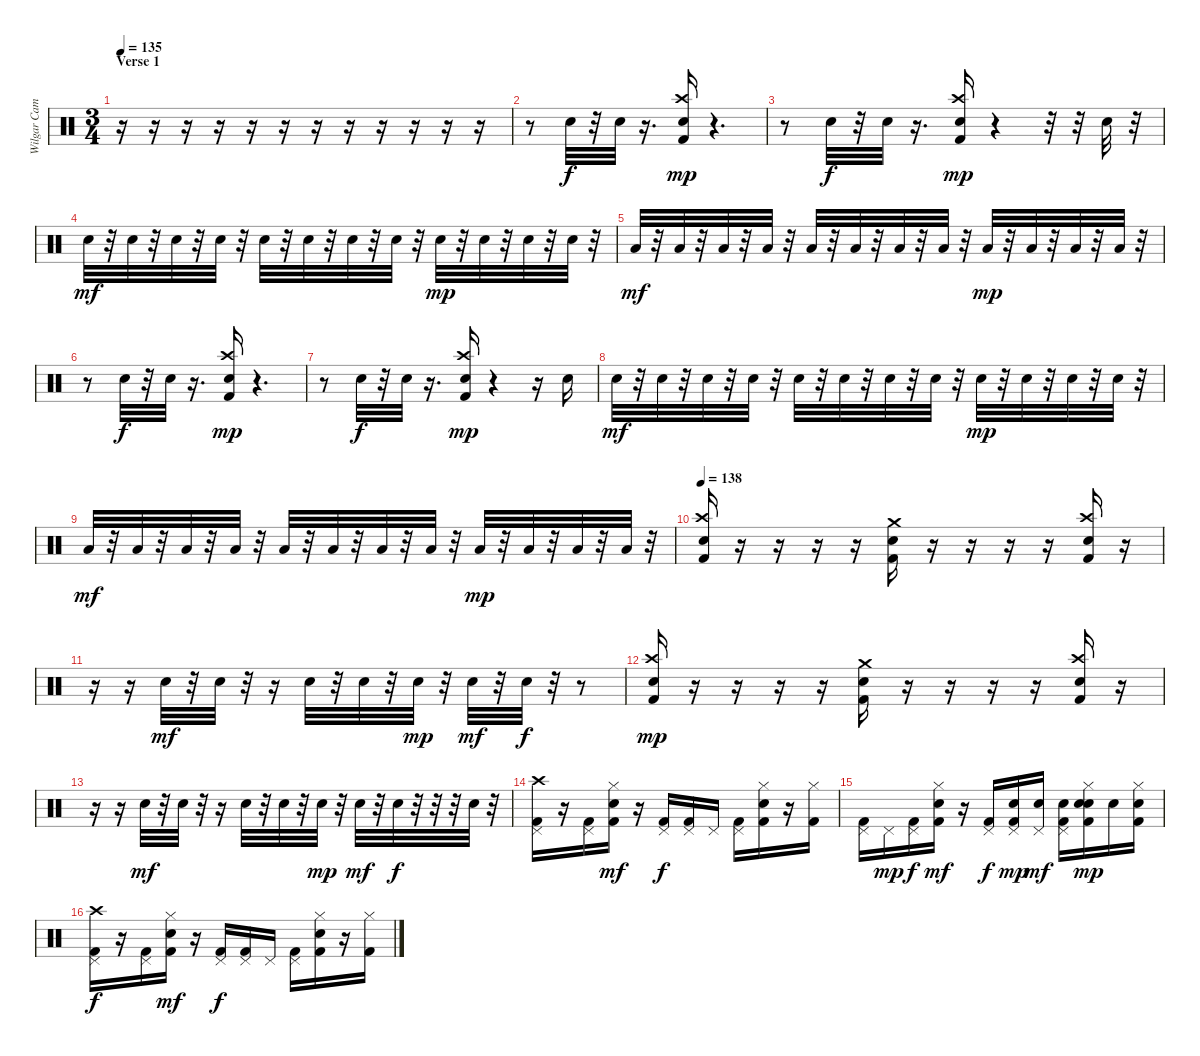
\track ("Wilgar Campbell" "Wilgar Cam") {instrument percussion}
\staff {score}
\articulation defaults
\ts (3 4)
\section ("" "Verse 1")
\tempo 135
\clef neutral
\ks c
r.16{dy f} r.16 r.16 r.16 r.16 r.16 r.16 r.16 r.16 r.16 r.16 r.16 |
r.8 "Snare (hit) 2".32 r.32 "Snare (hit) 2".32 r.16{d} ("Crash high (hit)" "Snare (hit) 2" "Kick (hit) 2").16{dy mp} r.4{d} |
r.8 "Snare (hit) 2".32{dy f} r.32 "Snare (hit) 2".32 r.16{d} ("Crash high (hit)" "Snare (hit) 2" "Kick (hit) 2").16{dy mp} r.4 r.32 r.32 "Snare (hit) 2".32 r.32 |
"Snare (hit) 2".32{dy mf} r.32 "Snare (hit) 2".32 r.32 "Snare (hit) 2".32 r.32 "Snare (hit) 2".32 r.32 "Snare (hit) 2".32 r.32 "Snare (hit) 2".32 r.32 "Snare (hit) 2".32 r.32 "Snare (hit) 2".32 r.32 "Snare (hit) 2".32{dy mp} r.32 "Snare (hit) 2".32 r.32 "Snare (hit) 2".32 r.32 "Snare (hit) 2".32 r.32 |
"Low Tom (hit)".32{dy mf} r.32 "Low Tom (hit)".32 r.32 "Low Tom (hit)".32 r.32 "Low Tom (hit)".32 r.32 "Low Tom (hit)".32 r.32 "Low Tom (hit)".32 r.32 "Low Tom (hit)".32 r.32 "Low Tom (hit)".32 r.32 "Low Tom (hit)".32{dy mp} r.32 "Low Tom (hit)".32 r.32 "Low Tom (hit)".32 r.32 "Low Tom (hit)".32 r.32 |
r.8 "Snare (hit) 2".32{dy f} r.32 "Snare (hit) 2".32 r.16{d} ("Crash high (hit)" "Snare (hit) 2" "Kick (hit) 2").16{dy mp} r.4{d} |
r.8 "Snare (hit) 2".32{dy f} r.32 "Snare (hit) 2".32 r.16{d} ("Crash high (hit)" "Snare (hit) 2" "Kick (hit) 2").16{dy mp} r.4 r.16 "Snare (hit) 2".16 |
"Snare (hit) 2".32{dy mf} r.32 "Snare (hit) 2".32 r.32 "Snare (hit) 2".32 r.32 "Snare (hit) 2".32 r.32 "Snare (hit) 2".32 r.32 "Snare (hit) 2".32 r.32 "Snare (hit) 2".32 r.32 "Snare (hit) 2".32 r.32 "Snare (hit) 2".32{dy mp} r.32 "Snare (hit) 2".32 r.32 "Snare (hit) 2".32 r.32 "Snare (hit) 2".32 r.32 |
"Low Tom (hit)".32{dy mf} r.32 "Low Tom (hit)".32 r.32 "Low Tom (hit)".32 r.32 "Low Tom (hit)".32 r.32 "Low Tom (hit)".32 r.32 "Low Tom (hit)".32 r.32 "Low Tom (hit)".32 r.32 "Low Tom (hit)".32 r.32 "Low Tom (hit)".32{dy mp} r.32 "Low Tom (hit)".32 r.32 "Low Tom (hit)".32 r.32 "Low Tom (hit)".32 r.32 |
\tempo 138
("Crash high (hit)" "Snare (hit) 2" "Kick (hit) 2").16 r.16 r.16 r.16 r.16 ("Crash medium (hit)" "Snare (hit) 2" "Kick (hit) 2").16 r.16 r.16 r.16 r.16 ("Crash high (hit)" "Snare (hit) 2" "Kick (hit) 2").16 r.16 |
r.16 r.16 "Snare (hit) 2".32{dy mf} r.32 "Snare (hit) 2".32 r.32 r.16 "Snare (hit) 2".32 r.32 "Snare (hit) 2".32 r.32 "Snare (hit) 2".32{dy mp} r.32 "Snare (hit) 2".32{dy mf} r.32 "Snare (hit) 2".32{dy f} r.32 r.8 |
("Crash high (hit)" "Snare (hit) 2" "Kick (hit) 2").16{dy mp} r.16 r.16 r.16 r.16 ("Crash medium (hit)" "Snare (hit) 2" "Kick (hit) 2").16 r.16 r.16 r.16 r.16 ("Crash high (hit)" "Snare (hit) 2" "Kick (hit) 2").16 r.16 |
r.16 r.16 "Snare (hit) 2".32{dy mf} r.32 "Snare (hit) 2".32 r.32 r.16 "Snare (hit) 2".32 r.32 "Snare (hit) 2".32 r.32 "Snare (hit) 2".32{dy mp} r.32 "Snare (hit) 2".32{dy mf} r.32 "Snare (hit) 2".32{dy f} r.32 r.32 r.32 "Snare (hit) 2".32 r.32 |
("Crash high (hit)" "Pedal Hi-Hat (hit)" "Kick (hit) 2").16 r.16 ("Pedal Hi-Hat (hit)" "Kick (hit) 2").16 ("Snare (hit) 2" "Hi-Hat (closed)" "Kick (hit) 2").16{dy mf} r.16 ("Pedal Hi-Hat (hit)" "Kick (hit) 2").16{dy f} ("Pedal Hi-Hat (hit)" "Kick (hit) 2").16 "Pedal Hi-Hat (hit)".16 ("Pedal Hi-Hat (hit)" "Kick (hit) 2").16 ("Snare (hit) 2" "Hi-Hat (closed)" "Kick (hit) 2").16 r.16 ("Hi-Hat (closed)" "Kick (hit) 2").16 |
("Pedal Hi-Hat (hit)" "Kick (hit) 2").16 "Pedal Hi-Hat (hit)".16{dy mp} ("Pedal Hi-Hat (hit)" "Kick (hit) 2").16{dy f} ("Snare (hit) 2" "Hi-Hat (closed)" "Kick (hit) 2").16{dy mf} r.16 ("Pedal Hi-Hat (hit)" "Kick (hit) 2").16{dy f} ("Pedal Hi-Hat (hit)" "Snare (hit) 2" "Kick (hit) 2").16{dy mp} ("Pedal Hi-Hat (hit)" "Snare (hit) 2").16{dy mf} ("Pedal Hi-Hat (hit)" "Snare (hit) 2" "Kick (hit) 2").16 ("Snare (hit) 2" "Hi-Hat (closed)" "Snare (hit) 2" "Kick (hit) 2").16{dy mp} "Snare (hit) 2".16 ("Hi-Hat (closed)" "Snare (hit) 2" "Kick (hit) 2").16 |
("Crash high (hit)" "Pedal Hi-Hat (hit)" "Kick (hit) 2").16{dy f} r.16 ("Pedal Hi-Hat (hit)" "Kick (hit) 2").16 ("Snare (hit) 2" "Hi-Hat (closed)" "Kick (hit) 2").16{dy mf} r.16 ("Pedal Hi-Hat (hit)" "Kick (hit) 2").16{dy f} ("Pedal Hi-Hat (hit)" "Kick (hit) 2").16 "Pedal Hi-Hat (hit)".16 ("Pedal Hi-Hat (hit)" "Kick (hit) 2").16 ("Snare (hit) 2" "Hi-Hat (closed)" "Kick (hit) 2").16 r.16 ("Hi-Hat (closed)" "Kick (hit) 2").16
